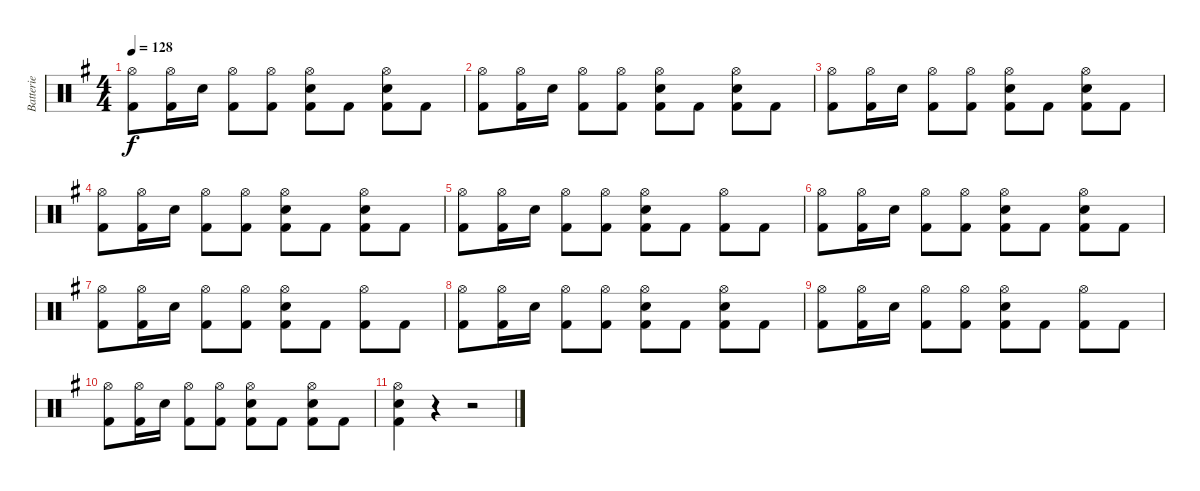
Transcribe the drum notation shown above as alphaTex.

\track ("Batterie" "Batterie") {instrument percussion}
\staff {score}
\articulation defaults
\ts (4 4)
\tempo 128
\clef neutral
\ks g
("Hi-Hat (open)" "Kick (hit) 2").8{dy f} ("Hi-Hat (open)" "Kick (hit) 2").16 "Snare (hit) 2".16 ("Hi-Hat (open)" "Kick (hit) 2").8 ("Hi-Hat (open)" "Kick (hit) 2").8 ("Hi-Hat (open)" "Snare (hit) 2" "Kick (hit) 2").8 "Kick (hit) 2".8 ("Hi-Hat (open)" "Snare (hit) 2" "Kick (hit) 2").8 "Kick (hit) 2".8 |
("Hi-Hat (open)" "Kick (hit) 2").8 ("Hi-Hat (open)" "Kick (hit) 2").16 "Snare (hit) 2".16 ("Hi-Hat (open)" "Kick (hit) 2").8 ("Hi-Hat (open)" "Kick (hit) 2").8 ("Hi-Hat (open)" "Snare (hit) 2" "Kick (hit) 2").8 "Kick (hit) 2".8 ("Hi-Hat (open)" "Snare (hit) 2" "Kick (hit) 2").8 "Kick (hit) 2".8 |
("Hi-Hat (open)" "Kick (hit) 2").8 ("Hi-Hat (open)" "Kick (hit) 2").16 "Snare (hit) 2".16 ("Hi-Hat (open)" "Kick (hit) 2").8 ("Hi-Hat (open)" "Kick (hit) 2").8 ("Hi-Hat (open)" "Snare (hit) 2" "Kick (hit) 2").8 "Kick (hit) 2".8 ("Hi-Hat (open)" "Snare (hit) 2" "Kick (hit) 2").8 "Kick (hit) 2".8 |
("Hi-Hat (open)" "Kick (hit) 2").8 ("Hi-Hat (open)" "Kick (hit) 2").16 "Snare (hit) 2".16 ("Hi-Hat (open)" "Kick (hit) 2").8 ("Hi-Hat (open)" "Kick (hit) 2").8 ("Hi-Hat (open)" "Snare (hit) 2" "Kick (hit) 2").8 "Kick (hit) 2".8 ("Hi-Hat (open)" "Snare (hit) 2" "Kick (hit) 2").8 "Kick (hit) 2".8 |
("Hi-Hat (open)" "Kick (hit) 2").8 ("Hi-Hat (open)" "Kick (hit) 2").16 "Snare (hit) 2".16 ("Hi-Hat (open)" "Kick (hit) 2").8 ("Hi-Hat (open)" "Kick (hit) 2").8 ("Hi-Hat (open)" "Snare (hit) 2" "Kick (hit) 2").8 "Kick (hit) 2".8 ("Hi-Hat (open)" "Kick (hit) 2").8 "Kick (hit) 2".8 |
("Hi-Hat (open)" "Kick (hit) 2").8 ("Hi-Hat (open)" "Kick (hit) 2").16 "Snare (hit) 2".16 ("Hi-Hat (open)" "Kick (hit) 2").8 ("Hi-Hat (open)" "Kick (hit) 2").8 ("Hi-Hat (open)" "Snare (hit) 2" "Kick (hit) 2").8 "Kick (hit) 2".8 ("Hi-Hat (open)" "Snare (hit) 2" "Kick (hit) 2").8 "Kick (hit) 2".8 |
("Hi-Hat (open)" "Kick (hit) 2").8 ("Hi-Hat (open)" "Kick (hit) 2").16 "Snare (hit) 2".16 ("Hi-Hat (open)" "Kick (hit) 2").8 ("Hi-Hat (open)" "Kick (hit) 2").8 ("Hi-Hat (open)" "Snare (hit) 2" "Kick (hit) 2").8 "Kick (hit) 2".8 ("Hi-Hat (open)" "Kick (hit) 2").8 "Kick (hit) 2".8 |
("Hi-Hat (open)" "Kick (hit) 2").8 ("Hi-Hat (open)" "Kick (hit) 2").16 "Snare (hit) 2".16 ("Hi-Hat (open)" "Kick (hit) 2").8 ("Hi-Hat (open)" "Kick (hit) 2").8 ("Hi-Hat (open)" "Snare (hit) 2" "Kick (hit) 2").8 "Kick (hit) 2".8 ("Hi-Hat (open)" "Snare (hit) 2" "Kick (hit) 2").8 "Kick (hit) 2".8 |
("Hi-Hat (open)" "Kick (hit) 2").8 ("Hi-Hat (open)" "Kick (hit) 2").16 "Snare (hit) 2".16 ("Hi-Hat (open)" "Kick (hit) 2").8 ("Hi-Hat (open)" "Kick (hit) 2").8 ("Hi-Hat (open)" "Snare (hit) 2" "Kick (hit) 2").8 "Kick (hit) 2".8 ("Hi-Hat (open)" "Kick (hit) 2").8 "Kick (hit) 2".8 |
("Hi-Hat (open)" "Kick (hit) 2").8 ("Hi-Hat (open)" "Kick (hit) 2").16 "Snare (hit) 2".16 ("Hi-Hat (open)" "Kick (hit) 2").8 ("Hi-Hat (open)" "Kick (hit) 2").8 ("Hi-Hat (open)" "Snare (hit) 2" "Kick (hit) 2").8 "Kick (hit) 2".8 ("Hi-Hat (open)" "Snare (hit) 2" "Kick (hit) 2").8 "Kick (hit) 2".8 |
("Hi-Hat (open)" "Snare (hit) 2" "Kick (hit) 2").4 r.4 r.2
